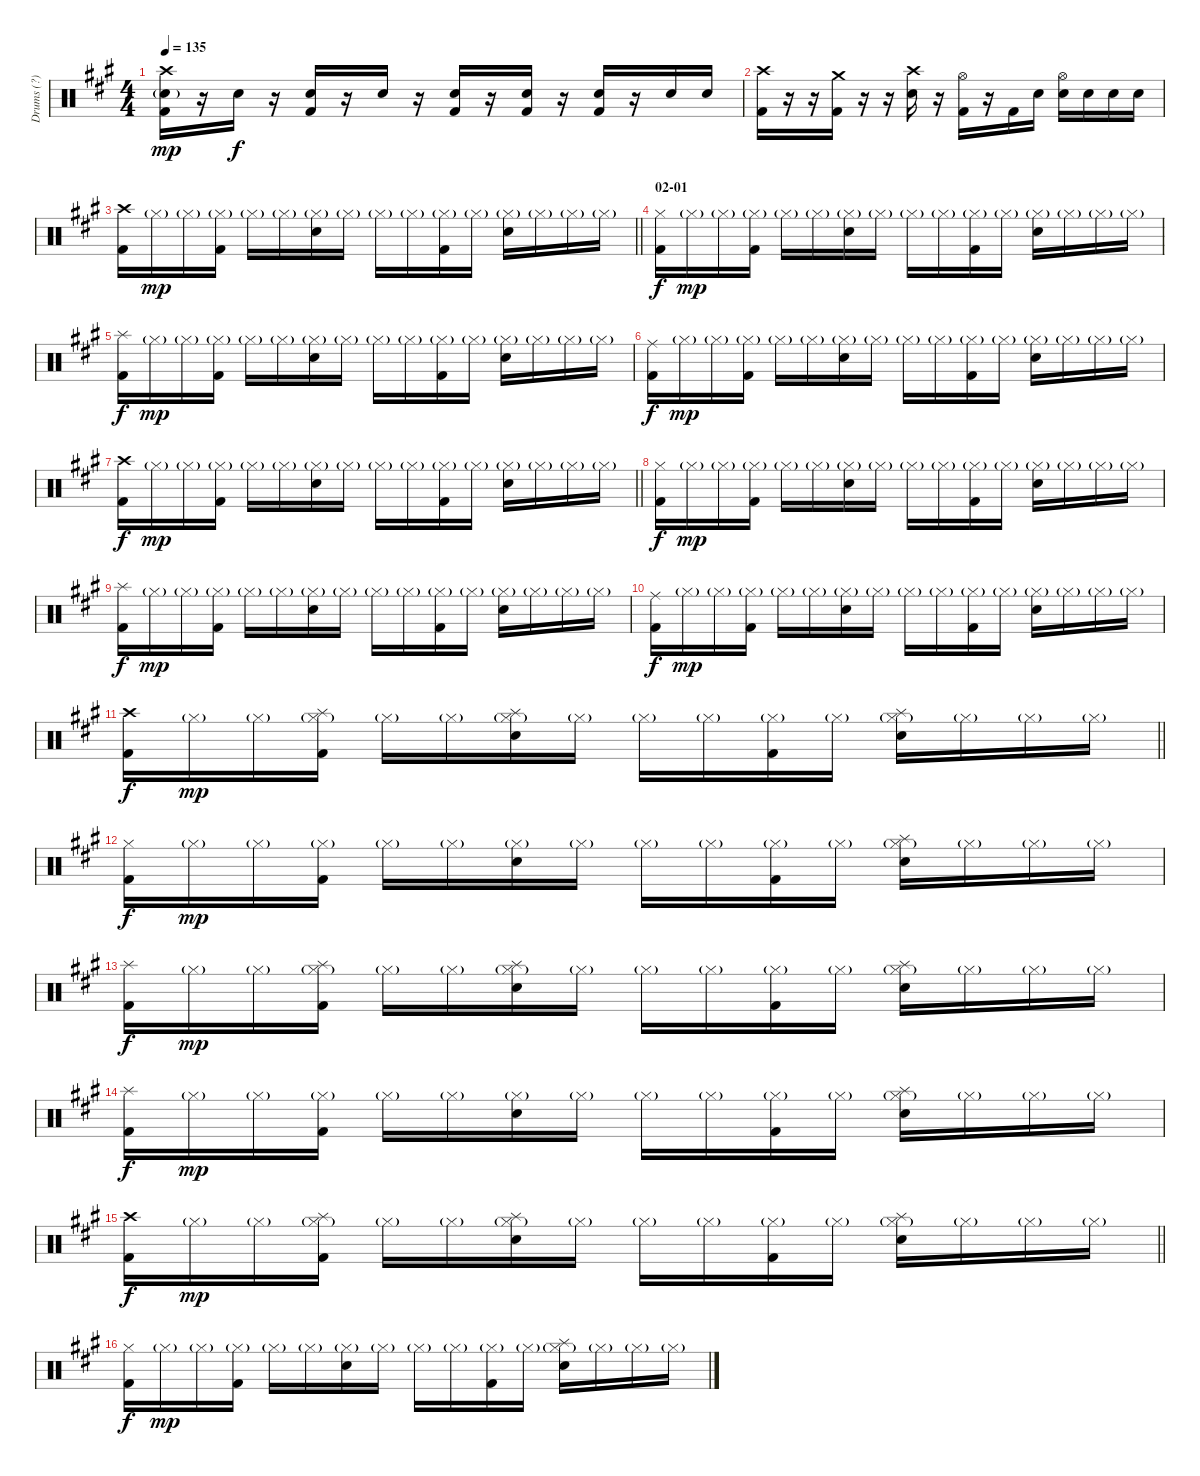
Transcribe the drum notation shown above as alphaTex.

\track ("Drums (?)" "Drums (?)") {instrument percussion}
\staff {score}
\articulation defaults
\ts (4 4)
\tempo 135
\clef neutral
\ks a
("Crash high (hit)" "Electric Snare (hit)"{g} "Kick (hit) 2").16{dy mp} r.16 "Electric Snare (hit)".16{dy f} r.16 ("Electric Snare (hit)" "Kick (hit) 2").16 r.16 "Electric Snare (hit)".16 r.16 ("Electric Snare (hit)" "Kick (hit) 2").16 r.16 ("Electric Snare (hit)" "Kick (hit) 2").16 r.16 ("Electric Snare (hit)" "Kick (hit) 2").16 r.16 "Electric Snare (hit)".16 "Electric Snare (hit)".16 |
("Crash high (hit)" "Kick (hit) 2").16 r.16 r.16 ("Crash medium (hit)" "Kick (hit) 2").16 r.16 r.16 ("Crash high (hit)" "Electric Snare (hit)").16 r.16 ("Hi-Hat (open)" "Kick (hit) 2").16 r.16 "Kick (hit) 2".16 "Electric Snare (hit)".16 ("Hi-Hat (open)" "Electric Snare (hit)").16 "Electric Snare (hit)".16 "Electric Snare (hit)".16 "Electric Snare (hit)".16 |
\barLineRight lightlight
("Crash high (hit)" "Kick (hit) 2").16 "Hi-Hat (closed)"{g}.16{dy mp} "Hi-Hat (closed)"{g}.16 ("Hi-Hat (closed)"{g} "Kick (hit) 2").16 "Hi-Hat (closed)"{g}.16 "Hi-Hat (closed)"{g}.16 ("Hi-Hat (closed)"{g} "Electric Snare (hit)").16 "Hi-Hat (closed)"{g}.16 "Hi-Hat (closed)"{g}.16 "Hi-Hat (closed)"{g}.16 ("Hi-Hat (closed)"{g} "Kick (hit) 2").16 "Hi-Hat (closed)"{g}.16 ("Hi-Hat (closed)"{g} "Electric Snare (hit)").16 "Hi-Hat (closed)"{g}.16 "Hi-Hat (closed)"{g}.16 "Hi-Hat (closed)"{g}.16 |
\section ("" "02-01")
("Hi-Hat (closed)" "Kick (hit) 2").16{dy f} "Hi-Hat (closed)"{g}.16{dy mp} "Hi-Hat (closed)"{g}.16 ("Hi-Hat (closed)"{g} "Kick (hit) 2").16 "Hi-Hat (closed)"{g}.16 "Hi-Hat (closed)"{g}.16 ("Hi-Hat (closed)"{g} "Electric Snare (hit)").16 "Hi-Hat (closed)"{g}.16 "Hi-Hat (closed)"{g}.16 "Hi-Hat (closed)"{g}.16 ("Hi-Hat (closed)"{g} "Kick (hit) 2").16 "Hi-Hat (closed)"{g}.16 ("Hi-Hat (closed)"{g} "Electric Snare (hit)").16 "Hi-Hat (closed)"{g}.16 "Hi-Hat (closed)"{g}.16 "Hi-Hat (closed)"{g}.16 |
("Splash (hit)" "Kick (hit) 2").16{dy f} "Hi-Hat (closed)"{g}.16{dy mp} "Hi-Hat (closed)"{g}.16 ("Hi-Hat (closed)"{g} "Kick (hit) 2").16 "Hi-Hat (closed)"{g}.16 "Hi-Hat (closed)"{g}.16 ("Hi-Hat (closed)"{g} "Electric Snare (hit)").16 "Hi-Hat (closed)"{g}.16 "Hi-Hat (closed)"{g}.16 "Hi-Hat (closed)"{g}.16 ("Hi-Hat (closed)"{g} "Kick (hit) 2").16 "Hi-Hat (closed)"{g}.16 ("Hi-Hat (closed)"{g} "Electric Snare (hit)").16 "Hi-Hat (closed)"{g}.16 "Hi-Hat (closed)"{g}.16 "Hi-Hat (closed)"{g}.16 |
("Ride (middle)" "Kick (hit) 2").16{dy f} "Hi-Hat (closed)"{g}.16{dy mp} "Hi-Hat (closed)"{g}.16 ("Hi-Hat (closed)"{g} "Kick (hit) 2").16 "Hi-Hat (closed)"{g}.16 "Hi-Hat (closed)"{g}.16 ("Hi-Hat (closed)"{g} "Electric Snare (hit)").16 "Hi-Hat (closed)"{g}.16 "Hi-Hat (closed)"{g}.16 "Hi-Hat (closed)"{g}.16 ("Hi-Hat (closed)"{g} "Kick (hit) 2").16 "Hi-Hat (closed)"{g}.16 ("Hi-Hat (closed)"{g} "Electric Snare (hit)").16 "Hi-Hat (closed)"{g}.16 "Hi-Hat (closed)"{g}.16 "Hi-Hat (closed)"{g}.16 |
\barLineRight lightlight
("Crash high (hit)" "Kick (hit) 2").16{dy f} "Hi-Hat (closed)"{g}.16{dy mp} "Hi-Hat (closed)"{g}.16 ("Hi-Hat (closed)"{g} "Kick (hit) 2").16 "Hi-Hat (closed)"{g}.16 "Hi-Hat (closed)"{g}.16 ("Hi-Hat (closed)"{g} "Electric Snare (hit)").16 "Hi-Hat (closed)"{g}.16 "Hi-Hat (closed)"{g}.16 "Hi-Hat (closed)"{g}.16 ("Hi-Hat (closed)"{g} "Kick (hit) 2").16 "Hi-Hat (closed)"{g}.16 ("Hi-Hat (closed)"{g} "Electric Snare (hit)").16 "Hi-Hat (closed)"{g}.16 "Hi-Hat (closed)"{g}.16 "Hi-Hat (closed)"{g}.16 |
("Hi-Hat (closed)" "Kick (hit) 2").16{dy f} "Hi-Hat (closed)"{g}.16{dy mp} "Hi-Hat (closed)"{g}.16 ("Hi-Hat (closed)"{g} "Kick (hit) 2").16 "Hi-Hat (closed)"{g}.16 "Hi-Hat (closed)"{g}.16 ("Hi-Hat (closed)"{g} "Electric Snare (hit)").16 "Hi-Hat (closed)"{g}.16 "Hi-Hat (closed)"{g}.16 "Hi-Hat (closed)"{g}.16 ("Hi-Hat (closed)"{g} "Kick (hit) 2").16 "Hi-Hat (closed)"{g}.16 ("Hi-Hat (closed)"{g} "Electric Snare (hit)").16 "Hi-Hat (closed)"{g}.16 "Hi-Hat (closed)"{g}.16 "Hi-Hat (closed)"{g}.16 |
("Splash (hit)" "Kick (hit) 2").16{dy f} "Hi-Hat (closed)"{g}.16{dy mp} "Hi-Hat (closed)"{g}.16 ("Hi-Hat (closed)"{g} "Kick (hit) 2").16 "Hi-Hat (closed)"{g}.16 "Hi-Hat (closed)"{g}.16 ("Hi-Hat (closed)"{g} "Electric Snare (hit)").16 "Hi-Hat (closed)"{g}.16 "Hi-Hat (closed)"{g}.16 "Hi-Hat (closed)"{g}.16 ("Hi-Hat (closed)"{g} "Kick (hit) 2").16 "Hi-Hat (closed)"{g}.16 ("Hi-Hat (closed)"{g} "Electric Snare (hit)").16 "Hi-Hat (closed)"{g}.16 "Hi-Hat (closed)"{g}.16 "Hi-Hat (closed)"{g}.16 |
("Ride (middle)" "Kick (hit) 2").16{dy f} "Hi-Hat (closed)"{g}.16{dy mp} "Hi-Hat (closed)"{g}.16 ("Hi-Hat (closed)"{g} "Kick (hit) 2").16 "Hi-Hat (closed)"{g}.16 "Hi-Hat (closed)"{g}.16 ("Hi-Hat (closed)"{g} "Electric Snare (hit)").16 "Hi-Hat (closed)"{g}.16 "Hi-Hat (closed)"{g}.16 "Hi-Hat (closed)"{g}.16 ("Hi-Hat (closed)"{g} "Kick (hit) 2").16 "Hi-Hat (closed)"{g}.16 ("Hi-Hat (closed)"{g} "Electric Snare (hit)").16 "Hi-Hat (closed)"{g}.16 "Hi-Hat (closed)"{g}.16 "Hi-Hat (closed)"{g}.16 |
\barLineRight lightlight
("Crash high (hit)" "Kick (hit) 2").16{dy f} "Hi-Hat (closed)"{g}.16{dy mp} "Hi-Hat (closed)"{g}.16 ("Splash (hit)" "Hi-Hat (closed)"{g} "Kick (hit) 2").16 "Hi-Hat (closed)"{g}.16 "Hi-Hat (closed)"{g}.16 ("Splash (hit)" "Hi-Hat (closed)"{g} "Electric Snare (hit)").16 "Hi-Hat (closed)"{g}.16 "Hi-Hat (closed)"{g}.16 "Hi-Hat (closed)"{g}.16 ("Hi-Hat (closed)"{g} "Kick (hit) 2").16 "Hi-Hat (closed)"{g}.16 ("Splash (hit)" "Hi-Hat (closed)"{g} "Electric Snare (hit)").16 "Hi-Hat (closed)"{g}.16 "Hi-Hat (closed)"{g}.16 "Hi-Hat (closed)"{g}.16 |
("Hi-Hat (closed)" "Kick (hit) 2").16{dy f} "Hi-Hat (closed)"{g}.16{dy mp} "Hi-Hat (closed)"{g}.16 ("Hi-Hat (closed)"{g} "Kick (hit) 2").16 "Hi-Hat (closed)"{g}.16 "Hi-Hat (closed)"{g}.16 ("Hi-Hat (closed)"{g} "Electric Snare (hit)").16 "Hi-Hat (closed)"{g}.16 "Hi-Hat (closed)"{g}.16 "Hi-Hat (closed)"{g}.16 ("Hi-Hat (closed)"{g} "Kick (hit) 2").16 "Hi-Hat (closed)"{g}.16 ("Splash (hit)" "Hi-Hat (closed)"{g} "Electric Snare (hit)").16 "Hi-Hat (closed)"{g}.16 "Hi-Hat (closed)"{g}.16 "Hi-Hat (closed)"{g}.16 |
("Splash (hit)" "Kick (hit) 2").16{dy f} "Hi-Hat (closed)"{g}.16{dy mp} "Hi-Hat (closed)"{g}.16 ("Splash (hit)" "Hi-Hat (closed)"{g} "Kick (hit) 2").16 "Hi-Hat (closed)"{g}.16 "Hi-Hat (closed)"{g}.16 ("Splash (hit)" "Hi-Hat (closed)"{g} "Electric Snare (hit)").16 "Hi-Hat (closed)"{g}.16 "Hi-Hat (closed)"{g}.16 "Hi-Hat (closed)"{g}.16 ("Hi-Hat (closed)"{g} "Kick (hit) 2").16 "Hi-Hat (closed)"{g}.16 ("Splash (hit)" "Hi-Hat (closed)"{g} "Electric Snare (hit)").16 "Hi-Hat (closed)"{g}.16 "Hi-Hat (closed)"{g}.16 "Hi-Hat (closed)"{g}.16 |
("Splash (hit)" "Kick (hit) 2").16{dy f} "Hi-Hat (closed)"{g}.16{dy mp} "Hi-Hat (closed)"{g}.16 ("Hi-Hat (closed)"{g} "Kick (hit) 2").16 "Hi-Hat (closed)"{g}.16 "Hi-Hat (closed)"{g}.16 ("Hi-Hat (closed)"{g} "Electric Snare (hit)").16 "Hi-Hat (closed)"{g}.16 "Hi-Hat (closed)"{g}.16 "Hi-Hat (closed)"{g}.16 ("Hi-Hat (closed)"{g} "Kick (hit) 2").16 "Hi-Hat (closed)"{g}.16 ("Splash (hit)" "Hi-Hat (closed)"{g} "Electric Snare (hit)").16 "Hi-Hat (closed)"{g}.16 "Hi-Hat (closed)"{g}.16 "Hi-Hat (closed)"{g}.16 |
\barLineRight lightlight
("Crash high (hit)" "Kick (hit) 2").16{dy f} "Hi-Hat (closed)"{g}.16{dy mp} "Hi-Hat (closed)"{g}.16 ("Splash (hit)" "Hi-Hat (closed)"{g} "Kick (hit) 2").16 "Hi-Hat (closed)"{g}.16 "Hi-Hat (closed)"{g}.16 ("Splash (hit)" "Hi-Hat (closed)"{g} "Electric Snare (hit)").16 "Hi-Hat (closed)"{g}.16 "Hi-Hat (closed)"{g}.16 "Hi-Hat (closed)"{g}.16 ("Hi-Hat (closed)"{g} "Kick (hit) 2").16 "Hi-Hat (closed)"{g}.16 ("Splash (hit)" "Hi-Hat (closed)"{g} "Electric Snare (hit)").16 "Hi-Hat (closed)"{g}.16 "Hi-Hat (closed)"{g}.16 "Hi-Hat (closed)"{g}.16 |
("Hi-Hat (closed)" "Kick (hit) 2").16{dy f} "Hi-Hat (closed)"{g}.16{dy mp} "Hi-Hat (closed)"{g}.16 ("Hi-Hat (closed)"{g} "Kick (hit) 2").16 "Hi-Hat (closed)"{g}.16 "Hi-Hat (closed)"{g}.16 ("Hi-Hat (closed)"{g} "Electric Snare (hit)").16 "Hi-Hat (closed)"{g}.16 "Hi-Hat (closed)"{g}.16 "Hi-Hat (closed)"{g}.16 ("Hi-Hat (closed)"{g} "Kick (hit) 2").16 "Hi-Hat (closed)"{g}.16 ("Splash (hit)" "Hi-Hat (closed)"{g} "Electric Snare (hit)").16 "Hi-Hat (closed)"{g}.16 "Hi-Hat (closed)"{g}.16 "Hi-Hat (closed)"{g}.16
